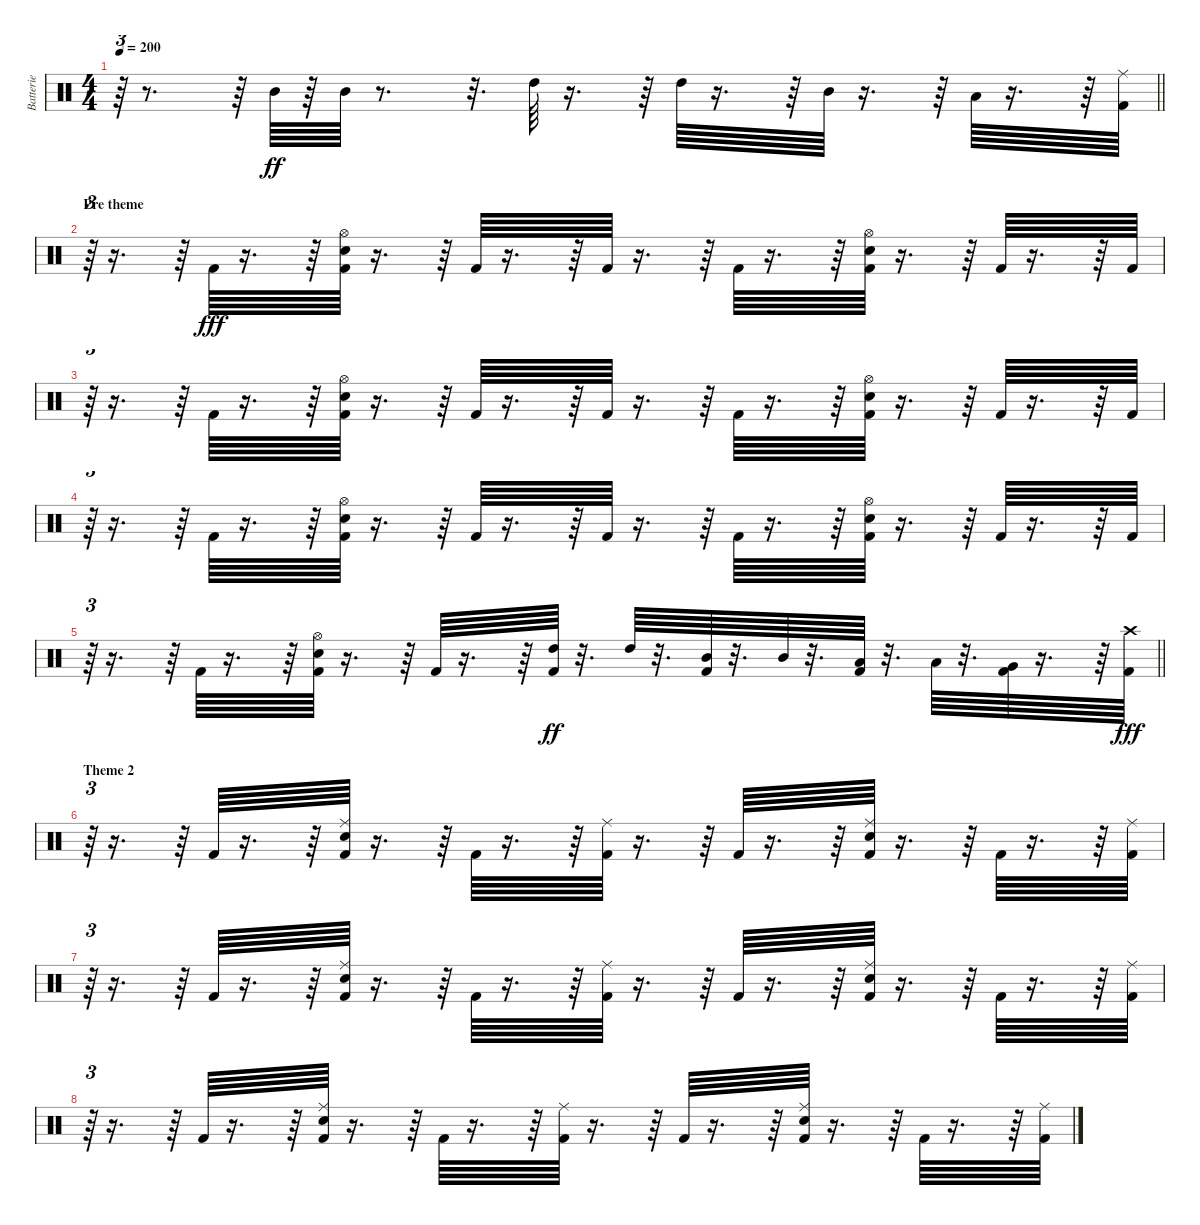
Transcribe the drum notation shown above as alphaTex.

\track ("Batterie" "Batterie") {instrument percussion}
\staff {score}
\articulation defaults
\ts (4 4)
\tempo 200
\clef neutral
\barLineRight lightlight
\ks c
r.64{tu (3 2) dy ff} r.8{d} r.64 "Mid Tom (hit)".64 r.64 "Mid Tom (hit)".64 r.8{d} r.32{d} "High Tom (hit)".64 r.16{d} r.64 "High Tom (hit)".64 r.16{d} r.64 "Mid Tom (hit)".64 r.16{d} r.64 "Low Tom (hit)".64 r.16{d} r.64 ("Kick (hit) 2" "Ride (middle)").64 |
\section ("" "Pre theme")
r.64{tu (3 2)} r.16{d} r.64 "Kick (hit) 2".64{dy fff} r.16{d} r.64 ("Kick (hit) 2" "Snare (hit) 2" "Hi-Hat (open)").64 r.16{d} r.64 "Kick (hit) 2".64 r.16{d} r.64 "Kick (hit) 2".64 r.16{d} r.64 "Kick (hit) 2".64 r.16{d} r.64 ("Kick (hit) 2" "Snare (hit) 2" "Hi-Hat (open)").64 r.16{d} r.64 "Kick (hit) 2".64 r.16{d} r.64 "Kick (hit) 2".64 |
r.64{tu (3 2)} r.16{d} r.64 "Kick (hit) 2".64 r.16{d} r.64 ("Kick (hit) 2" "Snare (hit) 2" "Hi-Hat (open)").64 r.16{d} r.64 "Kick (hit) 2".64 r.16{d} r.64 "Kick (hit) 2".64 r.16{d} r.64 "Kick (hit) 2".64 r.16{d} r.64 ("Kick (hit) 2" "Snare (hit) 2" "Hi-Hat (open)").64 r.16{d} r.64 "Kick (hit) 2".64 r.16{d} r.64 "Kick (hit) 2".64 |
r.64{tu (3 2)} r.16{d} r.64 "Kick (hit) 2".64 r.16{d} r.64 ("Kick (hit) 2" "Snare (hit) 2" "Hi-Hat (open)").64 r.16{d} r.64 "Kick (hit) 2".64 r.16{d} r.64 "Kick (hit) 2".64 r.16{d} r.64 "Kick (hit) 2".64 r.16{d} r.64 ("Kick (hit) 2" "Snare (hit) 2" "Hi-Hat (open)").64 r.16{d} r.64 "Kick (hit) 2".64 r.16{d} r.64 "Kick (hit) 2".64 |
\barLineRight lightlight
r.64{tu (3 2)} r.16{d} r.64 "Kick (hit) 2".64 r.16{d} r.64 ("Kick (hit) 2" "Snare (hit) 2" "Hi-Hat (open)").64 r.16{d} r.64 "Kick (hit) 2".64 r.16{d} r.64 ("Kick (hit) 2" "High Tom (hit)").64{dy ff} r.32{d} "High Tom (hit)".64 r.32{d} ("Kick (hit) 2" "Mid Tom (hit)").64 r.32{d} "Mid Tom (hit)".64 r.32{d} ("Kick (hit) 2" "Low Tom (hit)").64 r.32{d} "Low Tom (hit)".64 r.32{d} ("Kick (hit) 2" "Very Low Tom (hit)").64 r.16{d} r.64 ("Kick (hit) 2" "Crash high (hit)").64{dy fff} |
\section ("" "Theme 2")
r.64{tu (3 2)} r.16{d} r.64 "Kick (hit) 2".64 r.16{d} r.64 ("Kick (hit) 2" "Snare (hit) 2" "Ride (middle)").64 r.16{d} r.64 "Kick (hit) 2".64 r.16{d} r.64 ("Kick (hit) 2" "Ride (middle)").64 r.16{d} r.64 "Kick (hit) 2".64 r.16{d} r.64 ("Kick (hit) 2" "Snare (hit) 2" "Ride (middle)").64 r.16{d} r.64 "Kick (hit) 2".64 r.16{d} r.64 ("Kick (hit) 2" "Ride (middle)").64 |
r.64{tu (3 2)} r.16{d} r.64 "Kick (hit) 2".64 r.16{d} r.64 ("Kick (hit) 2" "Snare (hit) 2" "Ride (middle)").64 r.16{d} r.64 "Kick (hit) 2".64 r.16{d} r.64 ("Kick (hit) 2" "Ride (middle)").64 r.16{d} r.64 "Kick (hit) 2".64 r.16{d} r.64 ("Kick (hit) 2" "Snare (hit) 2" "Ride (middle)").64 r.16{d} r.64 "Kick (hit) 2".64 r.16{d} r.64 ("Kick (hit) 2" "Ride (middle)").64 |
r.64{tu (3 2)} r.16{d} r.64 "Kick (hit) 2".64 r.16{d} r.64 ("Kick (hit) 2" "Snare (hit) 2" "Ride (middle)").64 r.16{d} r.64 "Kick (hit) 2".64 r.16{d} r.64 ("Kick (hit) 2" "Ride (middle)").64 r.16{d} r.64 "Kick (hit) 2".64 r.16{d} r.64 ("Kick (hit) 2" "Snare (hit) 2" "Ride (middle)").64 r.16{d} r.64 "Kick (hit) 2".64 r.16{d} r.64 ("Kick (hit) 2" "Ride (middle)").64
